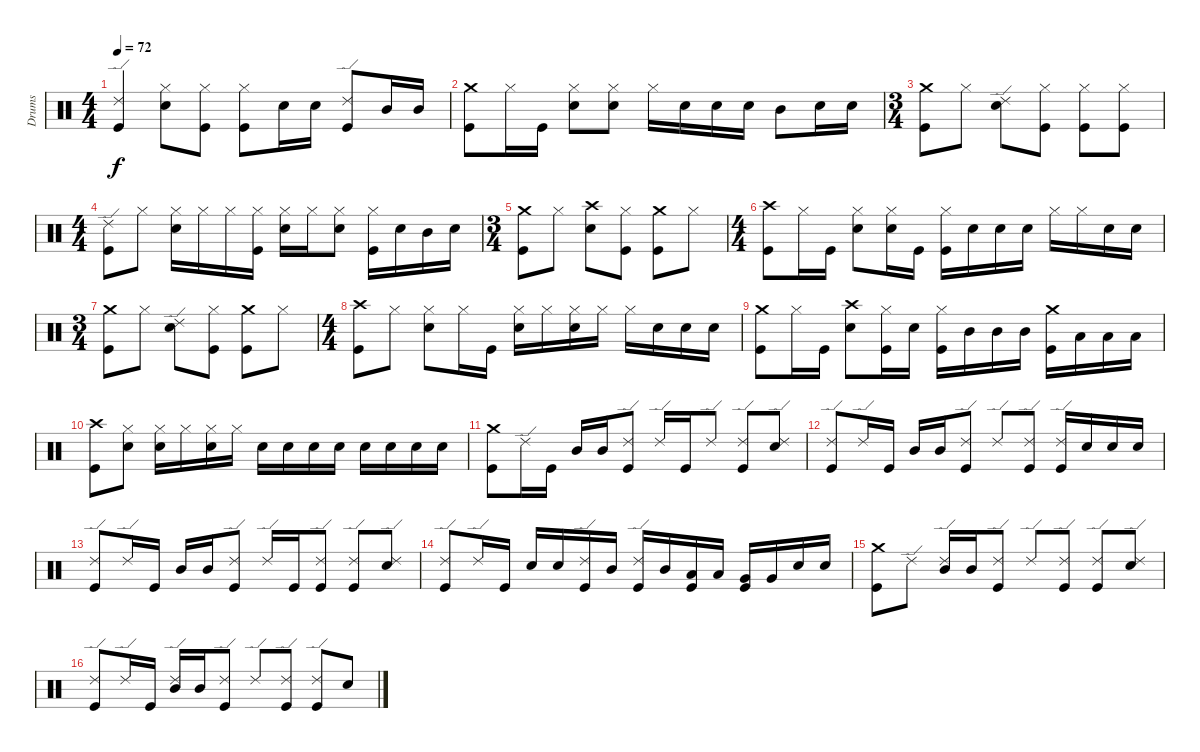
\track ("Drums" "Drums") {instrument percussion}
\staff {score}
\articulation defaults
\ts (4 4)
\tempo 72
\clef neutral
\ks c
("Kick (hit)" "Ride (edge) 2").4{dy f} ("Electric Snare (hit)" "Hi-Hat (closed)").8 ("Kick (hit)" "Hi-Hat (closed)").8 ("Kick (hit)" "Hi-Hat (closed)").8 "Electric Snare (hit)".16 "Electric Snare (hit)".16 ("Kick (hit)" "Ride (edge) 2").8 "Mid Tom (hit)".16 "Mid Tom (hit)".16 |
("Kick (hit)" "Crash medium (hit)").8 "Hi-Hat (closed)".16 "Kick (hit)".16 ("Electric Snare (hit)" "Hi-Hat (closed)").8 ("Electric Snare (hit)" "Hi-Hat (closed)").8 "Hi-Hat (closed)".16 "Electric Snare (hit)".16 "Electric Snare (hit)".16 "Electric Snare (hit)".16 "Mid Tom (hit)".8 "Electric Snare (hit)".16 "Electric Snare (hit)".16 |
\ts (3 4)
("Kick (hit)" "Crash medium (hit)").8 "Hi-Hat (closed)".8 ("Electric Snare (hit)" "Ride (edge) 2").8 ("Kick (hit)" "Hi-Hat (closed)").8 ("Kick (hit)" "Hi-Hat (closed)").8 ("Kick (hit)" "Hi-Hat (closed)").8 |
\ts (4 4)
("Kick (hit)" "Ride (edge) 2").8 "Hi-Hat (closed)".8 ("Electric Snare (hit)" "Hi-Hat (closed)").16 "Hi-Hat (closed)".16 "Hi-Hat (closed)".16 ("Kick (hit)" "Hi-Hat (closed)").16 ("Electric Snare (hit)" "Hi-Hat (closed)").16 "Hi-Hat (closed)".16 ("Electric Snare (hit)" "Hi-Hat (closed)").8 ("Kick (hit)" "Hi-Hat (closed)").16 "Electric Snare (hit)".16 "Mid Tom (hit)".16 "Electric Snare (hit)".16 |
\ts (3 4)
("Kick (hit)" "Crash medium (hit)").8 "Hi-Hat (closed)".8 ("Electric Snare (hit)" "Crash high (hit)").8 ("Kick (hit)" "Hi-Hat (closed)").8 ("Kick (hit)" "Crash medium (hit)").8 "Hi-Hat (closed)".8 |
\ts (4 4)
("Kick (hit)" "Crash high (hit)").8 "Hi-Hat (closed)".16 "Kick (hit)".16 ("Electric Snare (hit)" "Hi-Hat (closed)").8 ("Electric Snare (hit)" "Hi-Hat (closed)").16 "Kick (hit)".16 ("Kick (hit)" "Hi-Hat (closed)").16 "Electric Snare (hit)".16 "Electric Snare (hit)".16 "Electric Snare (hit)".16 "Hi-Hat (closed)".16 "Hi-Hat (closed)".16 "Electric Snare (hit)".16 "Electric Snare (hit)".16 |
\ts (3 4)
("Kick (hit)" "Crash medium (hit)").8 "Hi-Hat (closed)".8 ("Electric Snare (hit)" "Ride (edge) 2").8 ("Kick (hit)" "Hi-Hat (closed)").8 ("Kick (hit)" "Crash medium (hit)").8 "Hi-Hat (closed)".8 |
\ts (4 4)
("Kick (hit)" "Crash high (hit)").8 "Hi-Hat (closed)".8 ("Electric Snare (hit)" "Hi-Hat (closed)").8 "Hi-Hat (closed)".16 "Kick (hit)".16 ("Electric Snare (hit)" "Hi-Hat (closed)").16 "Hi-Hat (closed)".16 ("Electric Snare (hit)" "Hi-Hat (closed)").16 "Hi-Hat (closed)".16 "Hi-Hat (closed)".16 "Electric Snare (hit)".16 "Electric Snare (hit)".16 "Electric Snare (hit)".16 |
("Kick (hit)" "Crash medium (hit)").8 "Hi-Hat (closed)".16 "Kick (hit)".16 ("Electric Snare (hit)" "Crash high (hit)").8 ("Kick (hit)" "Hi-Hat (closed)").16 "Electric Snare (hit)".16 ("Kick (hit)" "Hi-Hat (closed)").16 "Mid Tom (hit)".16 "Mid Tom (hit)".16 "Mid Tom (hit)".16 ("Kick (hit)" "Crash medium (hit)").16 "Low Tom (hit)".16 "Low Tom (hit)".16 "Low Tom (hit)".16 |
("Kick (hit)" "Crash high (hit)").8 ("Electric Snare (hit)" "Hi-Hat (closed)").8 ("Electric Snare (hit)" "Hi-Hat (closed)").16 "Hi-Hat (closed)".16 ("Electric Snare (hit)" "Hi-Hat (closed)").16 "Hi-Hat (closed)".16 "Electric Snare (hit)".16 "Electric Snare (hit)".16 "Electric Snare (hit)".16 "Electric Snare (hit)".16 "Electric Snare (hit)".16 "Electric Snare (hit)".16 "Electric Snare (hit)".16 "Electric Snare (hit)".16 |
("Kick (hit)" "Crash medium (hit)").8 "Ride (edge) 2".16 "Kick (hit)".16 "Mid Tom (hit)".16 "Mid Tom (hit)".16 ("Kick (hit)" "Ride (edge) 2").8 "Ride (edge) 2".16 "Kick (hit)".16 "Ride (edge) 2".8 ("Kick (hit)" "Ride (edge) 2").8 ("Electric Snare (hit)" "Ride (edge) 2").8 |
("Kick (hit)" "Ride (edge) 2").8 "Ride (edge) 2".16 "Kick (hit)".16 "Mid Tom (hit)".16 "Mid Tom (hit)".16 ("Kick (hit)" "Ride (edge) 2").8 "Ride (edge) 2".8 ("Kick (hit)" "Ride (edge) 2").8 ("Kick (hit)" "Ride (edge) 2").16 "Electric Snare (hit)".16 "Electric Snare (hit)".16 "Electric Snare (hit)".16 |
("Kick (hit)" "Ride (edge) 2").8 "Ride (edge) 2".16 "Kick (hit)".16 "Mid Tom (hit)".16 "Mid Tom (hit)".16 ("Kick (hit)" "Ride (edge) 2").8 "Ride (edge) 2".16 "Kick (hit)".16 ("Kick (hit)" "Ride (edge) 2").8 ("Kick (hit)" "Ride (edge) 2").8 ("Electric Snare (hit)" "Ride (edge) 2").8 |
("Kick (hit)" "Ride (edge) 2").8 "Ride (edge) 2".16 "Kick (hit)".16 "Electric Snare (hit)".16 "Electric Snare (hit)".16 ("Kick (hit)" "Ride (edge) 2").16 "Mid Tom (hit)".16 ("Kick (hit)" "Ride (edge) 2").16 "Mid Tom (hit)".16 ("Kick (hit)" "Low Tom (hit)").16 "Low Tom (hit)".16 ("Kick (hit)" "Very Low Tom (hit)").16 "Very Low Tom (hit)".16 "Electric Snare (hit)".16 "Electric Snare (hit)".16 |
("Kick (hit)" "Crash medium (hit)").8 "Ride (edge) 2".8 ("Mid Tom (hit)" "Ride (edge) 2").16 "Mid Tom (hit)".16 ("Kick (hit)" "Ride (edge) 2").8 "Ride (edge) 2".8 ("Kick (hit)" "Ride (edge) 2").8 ("Kick (hit)" "Ride (edge) 2").8 ("Electric Snare (hit)" "Ride (edge) 2").8 |
("Kick (hit)" "Ride (edge) 2").8 "Ride (edge) 2".16 "Kick (hit)".16 ("Mid Tom (hit)" "Ride (edge) 2").16 "Mid Tom (hit)".16 ("Kick (hit)" "Ride (edge) 2").8 "Ride (edge) 2".8 ("Kick (hit)" "Ride (edge) 2").8 ("Kick (hit)" "Ride (edge) 2").8 "Electric Snare (hit)".8
